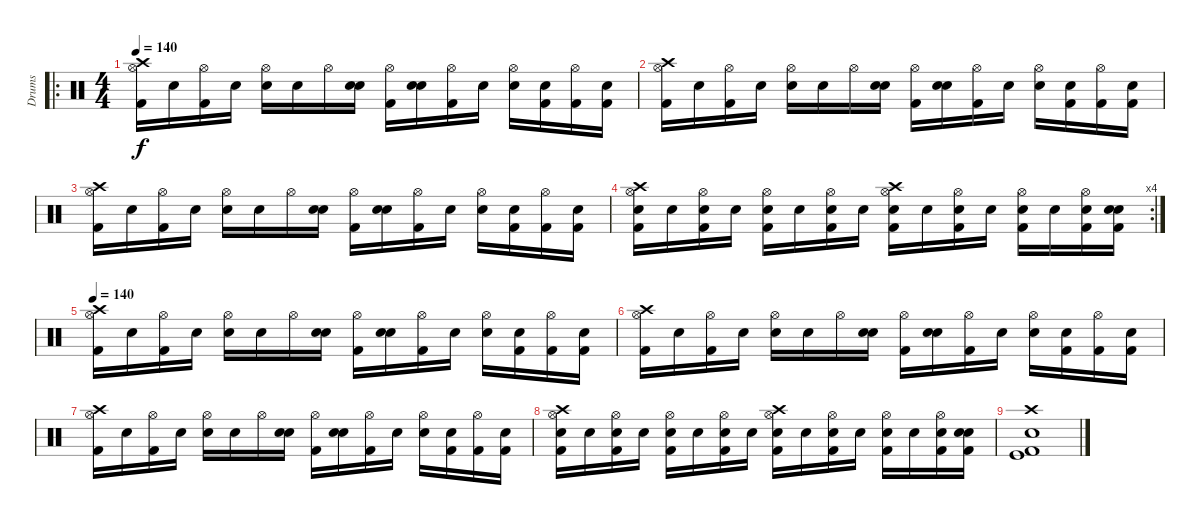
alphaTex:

\track ("Drums" "Drums") {instrument percussion}
\staff {score}
\articulation defaults
\ro
\ts (4 4)
\tempo 140
\clef neutral
\ks c
("Crash high (hit)" "Hi-Hat (open)" "Kick (hit) 2").16{dy f} "Snare (hit)".16 ("Hi-Hat (open)" "Kick (hit) 2").16 "Snare (hit)".16 ("Hi-Hat (open)" "Snare (hit) 2").16 "Snare (hit)".16 "Hi-Hat (open)".16 ("Snare (hit)" "Snare (hit) 2").16 ("Hi-Hat (open)" "Kick (hit) 2").16 ("Snare (hit)" "Snare (hit) 2").16 ("Hi-Hat (open)" "Kick (hit) 2").16 "Snare (hit)".16 ("Hi-Hat (open)" "Snare (hit) 2").16 ("Snare (hit)" "Kick (hit) 2").16 ("Hi-Hat (open)" "Kick (hit) 2").16 ("Snare (hit)" "Kick (hit) 2").16 |
("Crash high (hit)" "Hi-Hat (open)" "Kick (hit) 2").16 "Snare (hit)".16 ("Hi-Hat (open)" "Kick (hit) 2").16 "Snare (hit)".16 ("Hi-Hat (open)" "Snare (hit) 2").16 "Snare (hit)".16 "Hi-Hat (open)".16 ("Snare (hit)" "Snare (hit) 2").16 ("Hi-Hat (open)" "Kick (hit) 2").16 ("Snare (hit)" "Snare (hit) 2").16 ("Hi-Hat (open)" "Kick (hit) 2").16 "Snare (hit)".16 ("Hi-Hat (open)" "Snare (hit) 2").16 ("Snare (hit)" "Kick (hit) 2").16 ("Hi-Hat (open)" "Kick (hit) 2").16 ("Snare (hit)" "Kick (hit) 2").16 |
("Crash high (hit)" "Hi-Hat (open)" "Kick (hit) 2").16 "Snare (hit)".16 ("Hi-Hat (open)" "Kick (hit) 2").16 "Snare (hit)".16 ("Hi-Hat (open)" "Snare (hit) 2").16 "Snare (hit)".16 "Hi-Hat (open)".16 ("Snare (hit)" "Snare (hit) 2").16 ("Hi-Hat (open)" "Kick (hit) 2").16 ("Snare (hit)" "Snare (hit) 2").16 ("Hi-Hat (open)" "Kick (hit) 2").16 "Snare (hit)".16 ("Hi-Hat (open)" "Snare (hit) 2").16 ("Snare (hit)" "Kick (hit) 2").16 ("Hi-Hat (open)" "Kick (hit) 2").16 ("Snare (hit)" "Kick (hit) 2").16 |
\rc 4
("Crash high (hit)" "Hi-Hat (open)" "Snare (hit) 2" "Kick (hit) 2").16 "Snare (hit)".16 ("Hi-Hat (open)" "Snare (hit) 2" "Kick (hit) 2").16 "Snare (hit)".16 ("Hi-Hat (open)" "Snare (hit) 2" "Kick (hit) 2").16 "Snare (hit)".16 ("Hi-Hat (open)" "Snare (hit) 2" "Kick (hit) 2").16 "Snare (hit)".16 ("Crash high (hit)" "Hi-Hat (open)" "Snare (hit) 2" "Kick (hit) 2").16 "Snare (hit)".16 ("Hi-Hat (open)" "Snare (hit) 2" "Kick (hit) 2").16 "Snare (hit)".16 ("Hi-Hat (open)" "Kick (hit) 2" "Snare (hit) 2").16 "Snare (hit)".16 ("Hi-Hat (open)" "Snare (hit) 2" "Kick (hit) 2").16 ("Snare (hit)" "Snare (hit) 2" "Kick (hit) 2").16 |
\tempo 140
("Crash high (hit)" "Hi-Hat (open)" "Kick (hit) 2").16 "Snare (hit)".16 ("Hi-Hat (open)" "Kick (hit) 2").16 "Snare (hit)".16 ("Hi-Hat (open)" "Snare (hit) 2").16 "Snare (hit)".16 "Hi-Hat (open)".16 ("Snare (hit)" "Snare (hit) 2").16 ("Hi-Hat (open)" "Kick (hit) 2").16 ("Snare (hit)" "Snare (hit) 2").16 ("Hi-Hat (open)" "Kick (hit) 2").16 "Snare (hit)".16 ("Hi-Hat (open)" "Snare (hit) 2").16 ("Snare (hit)" "Kick (hit) 2").16 ("Hi-Hat (open)" "Kick (hit) 2").16 ("Snare (hit)" "Kick (hit) 2").16 |
("Crash high (hit)" "Hi-Hat (open)" "Kick (hit) 2").16 "Snare (hit)".16 ("Hi-Hat (open)" "Kick (hit) 2").16 "Snare (hit)".16 ("Hi-Hat (open)" "Snare (hit) 2").16 "Snare (hit)".16 "Hi-Hat (open)".16 ("Snare (hit)" "Snare (hit) 2").16 ("Hi-Hat (open)" "Kick (hit) 2").16 ("Snare (hit)" "Snare (hit) 2").16 ("Hi-Hat (open)" "Kick (hit) 2").16 "Snare (hit)".16 ("Hi-Hat (open)" "Snare (hit) 2").16 ("Snare (hit)" "Kick (hit) 2").16 ("Hi-Hat (open)" "Kick (hit) 2").16 ("Snare (hit)" "Kick (hit) 2").16 |
("Crash high (hit)" "Hi-Hat (open)" "Kick (hit) 2").16 "Snare (hit)".16 ("Hi-Hat (open)" "Kick (hit) 2").16 "Snare (hit)".16 ("Hi-Hat (open)" "Snare (hit) 2").16 "Snare (hit)".16 "Hi-Hat (open)".16 ("Snare (hit)" "Snare (hit) 2").16 ("Hi-Hat (open)" "Kick (hit) 2").16 ("Snare (hit)" "Snare (hit) 2").16 ("Hi-Hat (open)" "Kick (hit) 2").16 "Snare (hit)".16 ("Hi-Hat (open)" "Snare (hit) 2").16 ("Snare (hit)" "Kick (hit) 2").16 ("Hi-Hat (open)" "Kick (hit) 2").16 ("Snare (hit)" "Kick (hit) 2").16 |
("Crash high (hit)" "Hi-Hat (open)" "Snare (hit) 2" "Kick (hit) 2").16 "Snare (hit)".16 ("Hi-Hat (open)" "Snare (hit) 2" "Kick (hit) 2").16 "Snare (hit)".16 ("Hi-Hat (open)" "Snare (hit) 2" "Kick (hit) 2").16 "Snare (hit)".16 ("Hi-Hat (open)" "Snare (hit) 2" "Kick (hit) 2").16 "Snare (hit)".16 ("Crash high (hit)" "Hi-Hat (open)" "Snare (hit) 2" "Kick (hit) 2").16 "Snare (hit)".16 ("Hi-Hat (open)" "Snare (hit) 2" "Kick (hit) 2").16 "Snare (hit)".16 ("Hi-Hat (open)" "Kick (hit) 2" "Snare (hit) 2").16 "Snare (hit)".16 ("Hi-Hat (open)" "Snare (hit) 2" "Kick (hit) 2").16 ("Snare (hit)" "Snare (hit) 2" "Kick (hit) 2").16 |
("Snare (hit) 2" "Crash high (hit)" "Kick (hit)" "Kick (hit) 2").1
